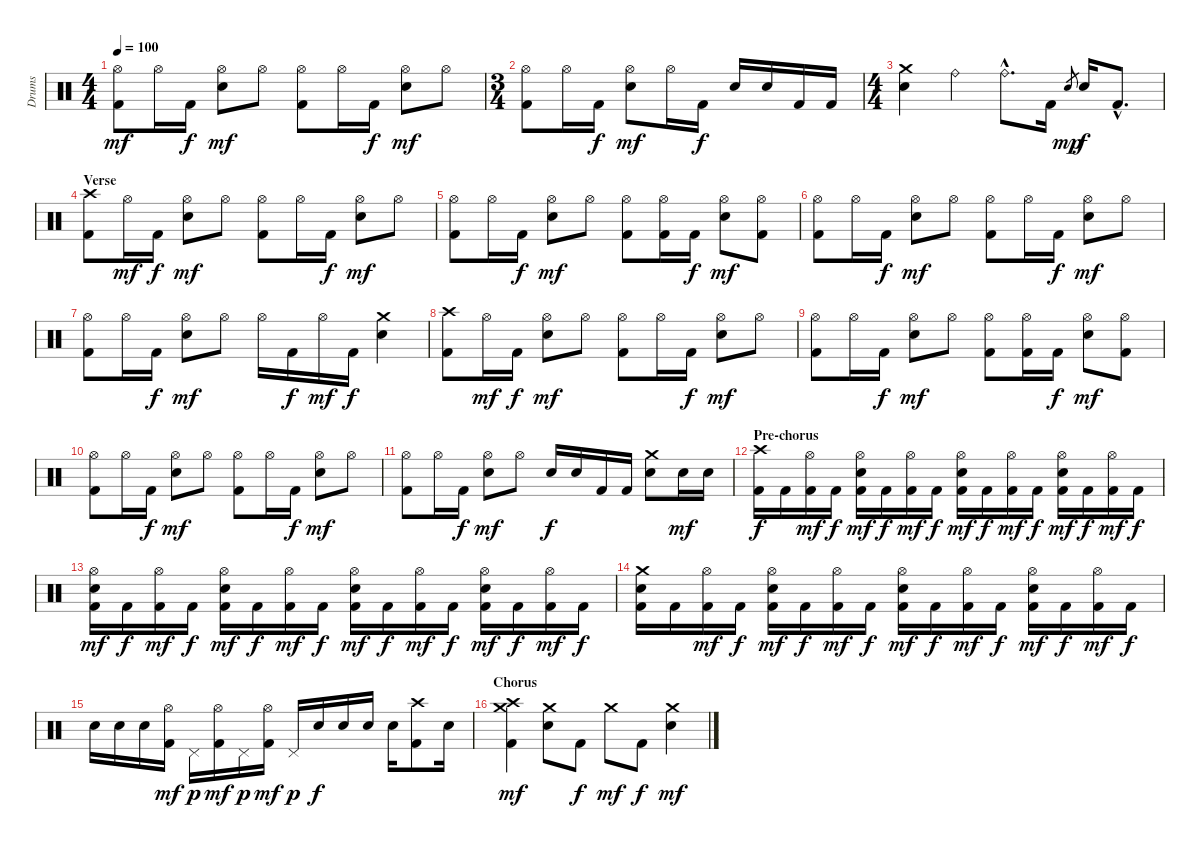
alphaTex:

\track ("Drums" "Drums") {instrument percussion}
\staff {score}
\articulation defaults
\ts (4 4)
\tempo 100
\clef neutral
\ks c
("Hi-Hat (open)" "Kick (hit) 2").8{dy mf} "Hi-Hat (open)".16 "Kick (hit) 2".16{dy f} ("Hi-Hat (open)" "Electric Snare (hit)").8{dy mf} "Hi-Hat (open)".8 ("Hi-Hat (open)" "Kick (hit) 2").8 "Hi-Hat (open)".16 "Kick (hit) 2".16{dy f} ("Hi-Hat (open)" "Electric Snare (hit)").8{dy mf} "Hi-Hat (open)".8 |
\ts (3 4)
("Hi-Hat (open)" "Kick (hit) 2").8 "Hi-Hat (open)".16 "Kick (hit) 2".16{dy f} ("Hi-Hat (open)" "Electric Snare (hit)").8{dy mf} "Hi-Hat (open)".16 "Kick (hit) 2".16{dy f} "Electric Snare (hit)".16 "Electric Snare (hit)".16 "Kick (hit) 2".16 "Kick (hit) 2".16 |
\ts (4 4)
("Crash medium (hit)" "Electric Snare (hit)").4 "Ride (bell)".4 "Ride (bell)"{hac}.8{d} "Kick (hit) 2".16 "Electric Snare (hit)".8{gr dy mp} "Electric Snare (hit)".16{dy f} "Kick (hit) 2"{hac}.8{d} |
\section ("" "Verse")
("Crash high (hit)" "Kick (hit) 2").8 "Hi-Hat (open)".16{dy mf} "Kick (hit) 2".16{dy f} ("Hi-Hat (open)" "Electric Snare (hit)").8{dy mf} "Hi-Hat (open)".8 ("Hi-Hat (open)" "Kick (hit) 2").8 "Hi-Hat (open)".16 "Kick (hit) 2".16{dy f} ("Hi-Hat (open)" "Electric Snare (hit)").8{dy mf} "Hi-Hat (open)".8 |
("Hi-Hat (open)" "Kick (hit) 2").8 "Hi-Hat (open)".16 "Kick (hit) 2".16{dy f} ("Hi-Hat (open)" "Electric Snare (hit)").8{dy mf} "Hi-Hat (open)".8 ("Hi-Hat (open)" "Kick (hit) 2").8 ("Hi-Hat (open)" "Kick (hit) 2").16 "Kick (hit) 2".16{dy f} ("Hi-Hat (open)" "Electric Snare (hit)").8{dy mf} ("Hi-Hat (open)" "Kick (hit) 2").8 |
("Hi-Hat (open)" "Kick (hit) 2").8 "Hi-Hat (open)".16 "Kick (hit) 2".16{dy f} ("Hi-Hat (open)" "Electric Snare (hit)").8{dy mf} "Hi-Hat (open)".8 ("Hi-Hat (open)" "Kick (hit) 2").8 "Hi-Hat (open)".16 "Kick (hit) 2".16{dy f} ("Hi-Hat (open)" "Electric Snare (hit)").8{dy mf} "Hi-Hat (open)".8 |
("Hi-Hat (open)" "Kick (hit) 2").8 "Hi-Hat (open)".16 "Kick (hit) 2".16{dy f} ("Hi-Hat (open)" "Electric Snare (hit)").8{dy mf} "Hi-Hat (open)".8 "Hi-Hat (open)".16 "Kick (hit) 2".16{dy f} "Hi-Hat (open)".16{dy mf} "Kick (hit) 2".16{dy f} ("Crash medium (hit)" "Electric Snare (hit)").4 |
("Crash high (hit)" "Kick (hit) 2").8 "Hi-Hat (open)".16{dy mf} "Kick (hit) 2".16{dy f} ("Hi-Hat (open)" "Electric Snare (hit)").8{dy mf} "Hi-Hat (open)".8 ("Hi-Hat (open)" "Kick (hit) 2").8 "Hi-Hat (open)".16 "Kick (hit) 2".16{dy f} ("Hi-Hat (open)" "Electric Snare (hit)").8{dy mf} "Hi-Hat (open)".8 |
("Hi-Hat (open)" "Kick (hit) 2").8 "Hi-Hat (open)".16 "Kick (hit) 2".16{dy f} ("Hi-Hat (open)" "Electric Snare (hit)").8{dy mf} "Hi-Hat (open)".8 ("Hi-Hat (open)" "Kick (hit) 2").8 ("Hi-Hat (open)" "Kick (hit) 2").16 "Kick (hit) 2".16{dy f} ("Hi-Hat (open)" "Electric Snare (hit)").8{dy mf} ("Hi-Hat (open)" "Kick (hit) 2").8 |
("Hi-Hat (open)" "Kick (hit) 2").8 "Hi-Hat (open)".16 "Kick (hit) 2".16{dy f} ("Hi-Hat (open)" "Electric Snare (hit)").8{dy mf} "Hi-Hat (open)".8 ("Hi-Hat (open)" "Kick (hit) 2").8 "Hi-Hat (open)".16 "Kick (hit) 2".16{dy f} ("Hi-Hat (open)" "Electric Snare (hit)").8{dy mf} "Hi-Hat (open)".8 |
("Hi-Hat (open)" "Kick (hit) 2").8 "Hi-Hat (open)".16 "Kick (hit) 2".16{dy f} ("Hi-Hat (open)" "Electric Snare (hit)").8{dy mf} "Hi-Hat (open)".8 "Electric Snare (hit)".16{dy f} "Electric Snare (hit)".16 "Kick (hit) 2".16 "Kick (hit) 2".16 ("Crash medium (hit)" "Electric Snare (hit)").8 "Electric Snare (hit)".16{dy mf} "Electric Snare (hit)".16 |
\section ("" "Pre-chorus")
("Crash high (hit)" "Kick (hit) 2").16{dy f} "Kick (hit) 2".16 ("Hi-Hat (open)" "Kick (hit) 2").16{dy mf} "Kick (hit) 2".16{dy f} ("Hi-Hat (open)" "Electric Snare (hit)" "Kick (hit) 2").16{dy mf} "Kick (hit) 2".16{dy f} ("Hi-Hat (open)" "Kick (hit) 2").16{dy mf} "Kick (hit) 2".16{dy f} ("Hi-Hat (open)" "Electric Snare (hit)" "Kick (hit) 2").16{dy mf} "Kick (hit) 2".16{dy f} ("Hi-Hat (open)" "Kick (hit) 2").16{dy mf} "Kick (hit) 2".16{dy f} ("Hi-Hat (open)" "Electric Snare (hit)" "Kick (hit) 2").16{dy mf} "Kick (hit) 2".16{dy f} ("Hi-Hat (open)" "Kick (hit) 2").16{dy mf} "Kick (hit) 2".16{dy f} |
("Hi-Hat (open)" "Electric Snare (hit)" "Kick (hit) 2").16{dy mf} "Kick (hit) 2".16{dy f} ("Hi-Hat (open)" "Kick (hit) 2").16{dy mf} "Kick (hit) 2".16{dy f} ("Hi-Hat (open)" "Electric Snare (hit)" "Kick (hit) 2").16{dy mf} "Kick (hit) 2".16{dy f} ("Hi-Hat (open)" "Kick (hit) 2").16{dy mf} "Kick (hit) 2".16{dy f} ("Hi-Hat (open)" "Electric Snare (hit)" "Kick (hit) 2").16{dy mf} "Kick (hit) 2".16{dy f} ("Hi-Hat (open)" "Kick (hit) 2").16{dy mf} "Kick (hit) 2".16{dy f} ("Hi-Hat (open)" "Electric Snare (hit)" "Kick (hit) 2").16{dy mf} "Kick (hit) 2".16{dy f} ("Hi-Hat (open)" "Kick (hit) 2").16{dy mf} "Kick (hit) 2".16{dy f} |
("Crash medium (hit)" "Electric Snare (hit)" "Kick (hit) 2").16 "Kick (hit) 2".16 ("Hi-Hat (open)" "Kick (hit) 2").16{dy mf} "Kick (hit) 2".16{dy f} ("Hi-Hat (open)" "Electric Snare (hit)" "Kick (hit) 2").16{dy mf} "Kick (hit) 2".16{dy f} ("Hi-Hat (open)" "Kick (hit) 2").16{dy mf} "Kick (hit) 2".16{dy f} ("Hi-Hat (open)" "Electric Snare (hit)" "Kick (hit) 2").16{dy mf} "Kick (hit) 2".16{dy f} ("Hi-Hat (open)" "Kick (hit) 2").16{dy mf} "Kick (hit) 2".16{dy f} ("Hi-Hat (open)" "Electric Snare (hit)" "Kick (hit) 2").16{dy mf} "Kick (hit) 2".16{dy f} ("Hi-Hat (open)" "Kick (hit) 2").16{dy mf} "Kick (hit) 2".16{dy f} |
"Electric Snare (hit)".16 "Electric Snare (hit)".16 "Electric Snare (hit)".16 ("Hi-Hat (open)" "Kick (hit) 2").16{dy mf} "Pedal Hi-Hat (hit)".16{dy p} ("Hi-Hat (open)" "Kick (hit) 2").16{dy mf} "Pedal Hi-Hat (hit)".16{dy p} ("Hi-Hat (open)" "Kick (hit) 2").16{dy mf} "Pedal Hi-Hat (hit)".16{dy p} "Electric Snare (hit)".16{dy f} "Electric Snare (hit)".16 "Electric Snare (hit)".16 "Electric Snare (hit)".16 ("Crash high (hit)" "Kick (hit) 2").8 "Electric Snare (hit)".16 |
\section ("" "Chorus")
("Crash medium (hit)" "Crash high (hit)" "Kick (hit) 2").4{dy mf} ("Crash medium (hit)" "Electric Snare (hit)").8 "Kick (hit) 2".8{dy f} "Crash medium (hit)".8{dy mf} "Kick (hit) 2".8{dy f} ("Crash medium (hit)" "Electric Snare (hit)").4{dy mf}
